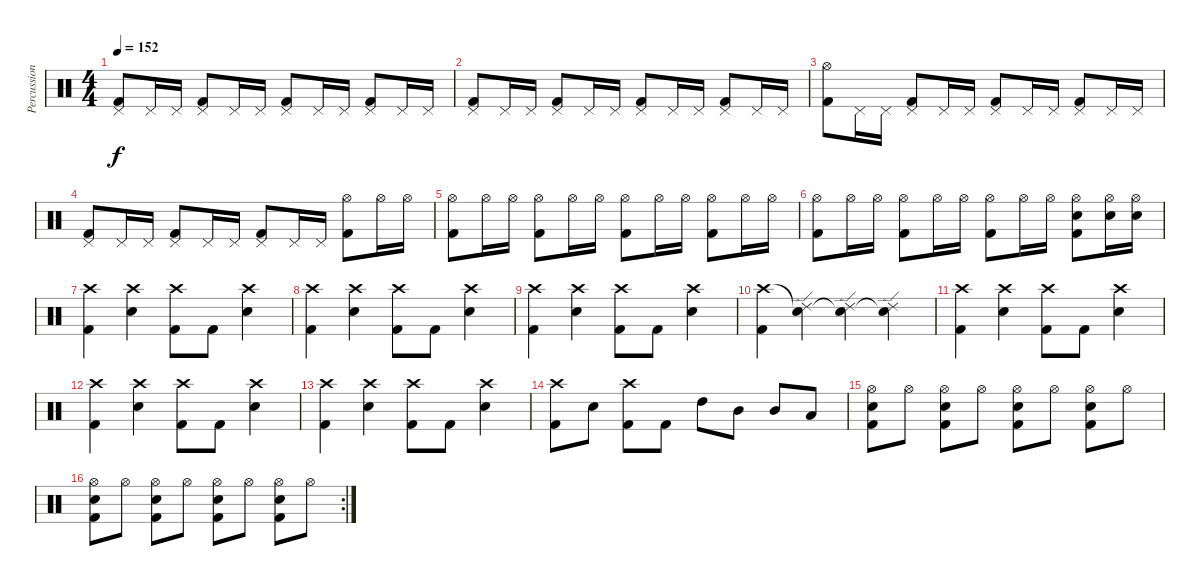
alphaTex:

\track ("Percussion" "Percussion") {instrument percussion}
\staff {score}
\articulation defaults
\ts (4 4)
\tempo 152
\clef neutral
\ks c
("Pedal Hi-Hat (hit)" "Kick (hit) 2").8{dy f} "Pedal Hi-Hat (hit)".16 "Pedal Hi-Hat (hit)".16 ("Pedal Hi-Hat (hit)" "Kick (hit) 2").8 "Pedal Hi-Hat (hit)".16 "Pedal Hi-Hat (hit)".16 ("Pedal Hi-Hat (hit)" "Kick (hit) 2").8 "Pedal Hi-Hat (hit)".16 "Pedal Hi-Hat (hit)".16 ("Pedal Hi-Hat (hit)" "Kick (hit) 2").8 "Pedal Hi-Hat (hit)".16 "Pedal Hi-Hat (hit)".16 |
("Pedal Hi-Hat (hit)" "Kick (hit) 2").8 "Pedal Hi-Hat (hit)".16 "Pedal Hi-Hat (hit)".16 ("Pedal Hi-Hat (hit)" "Kick (hit) 2").8 "Pedal Hi-Hat (hit)".16 "Pedal Hi-Hat (hit)".16 ("Pedal Hi-Hat (hit)" "Kick (hit) 2").8 "Pedal Hi-Hat (hit)".16 "Pedal Hi-Hat (hit)".16 ("Pedal Hi-Hat (hit)" "Kick (hit) 2").8 "Pedal Hi-Hat (hit)".16 "Pedal Hi-Hat (hit)".16 |
("Hi-Hat (open)" "Kick (hit) 2").8 "Pedal Hi-Hat (hit)".16 "Pedal Hi-Hat (hit)".16 ("Pedal Hi-Hat (hit)" "Kick (hit) 2").8 "Pedal Hi-Hat (hit)".16 "Pedal Hi-Hat (hit)".16 ("Pedal Hi-Hat (hit)" "Kick (hit) 2").8 "Pedal Hi-Hat (hit)".16 "Pedal Hi-Hat (hit)".16 ("Pedal Hi-Hat (hit)" "Kick (hit) 2").8 "Pedal Hi-Hat (hit)".16 "Pedal Hi-Hat (hit)".16 |
("Pedal Hi-Hat (hit)" "Kick (hit) 2").8 "Pedal Hi-Hat (hit)".16 "Pedal Hi-Hat (hit)".16 ("Pedal Hi-Hat (hit)" "Kick (hit) 2").8 "Pedal Hi-Hat (hit)".16 "Pedal Hi-Hat (hit)".16 ("Pedal Hi-Hat (hit)" "Kick (hit) 2").8 "Pedal Hi-Hat (hit)".16 "Pedal Hi-Hat (hit)".16 ("Hi-Hat (open)" "Kick (hit) 2").8 "Hi-Hat (open)".16 "Hi-Hat (open)".16 |
("Hi-Hat (open)" "Kick (hit) 2").8 "Hi-Hat (open)".16 "Hi-Hat (open)".16 ("Hi-Hat (open)" "Kick (hit) 2").8 "Hi-Hat (open)".16 "Hi-Hat (open)".16 ("Hi-Hat (open)" "Kick (hit) 2").8 "Hi-Hat (open)".16 "Hi-Hat (open)".16 ("Hi-Hat (open)" "Kick (hit) 2").8 "Hi-Hat (open)".16 "Hi-Hat (open)".16 |
("Hi-Hat (open)" "Kick (hit) 2").8 "Hi-Hat (open)".16 "Hi-Hat (open)".16 ("Hi-Hat (open)" "Kick (hit) 2").8 "Hi-Hat (open)".16 "Hi-Hat (open)".16 ("Hi-Hat (open)" "Kick (hit) 2").8 "Hi-Hat (open)".16 "Hi-Hat (open)".16 ("Hi-Hat (open)" "Snare (hit) 2" "Kick (hit) 2").8 ("Hi-Hat (open)" "Snare (hit) 2").16 ("Hi-Hat (open)" "Snare (hit) 2").16 |
("Crash high (hit)" "Kick (hit) 2").4 ("Crash high (hit)" "Snare (hit) 2").4 ("Crash high (hit)" "Kick (hit) 2").8 "Kick (hit) 2".8 ("Crash high (hit)" "Snare (hit) 2").4 |
("Crash high (hit)" "Kick (hit) 2").4 ("Crash high (hit)" "Snare (hit) 2").4 ("Crash high (hit)" "Kick (hit) 2").8 "Kick (hit) 2".8 ("Crash high (hit)" "Snare (hit) 2").4 |
("Crash high (hit)" "Kick (hit) 2").4 ("Crash high (hit)" "Snare (hit) 2").4 ("Crash high (hit)" "Kick (hit) 2").8 "Kick (hit) 2".8 ("Crash high (hit)" "Snare (hit) 2").4 |
("Crash high (hit)" "Kick (hit) 2").4 ("Snare (hit)"{t} "Ride (edge) 2").4 ("Snare (hit)"{t} "Ride (edge) 2").4 ("Snare (hit)"{t} "Ride (edge) 2").4 |
("Crash high (hit)" "Kick (hit) 2").4 ("Crash high (hit)" "Snare (hit) 2").4 ("Crash high (hit)" "Kick (hit) 2").8 "Kick (hit) 2".8 ("Crash high (hit)" "Snare (hit) 2").4 |
("Crash high (hit)" "Kick (hit) 2").4 ("Crash high (hit)" "Snare (hit) 2").4 ("Crash high (hit)" "Kick (hit) 2").8 "Kick (hit) 2".8 ("Crash high (hit)" "Snare (hit) 2").4 |
("Crash high (hit)" "Kick (hit) 2").4 ("Crash high (hit)" "Snare (hit) 2").4 ("Crash high (hit)" "Kick (hit) 2").8 "Kick (hit) 2".8 ("Crash high (hit)" "Snare (hit) 2").4 |
("Crash high (hit)" "Kick (hit) 2").8 "Snare (hit) 2".8 ("Crash high (hit)" "Kick (hit) 2").8 "Kick (hit) 2".8 "High Tom (hit)".8 "Mid Tom (hit)".8 "Mid Tom (hit)".8 "Low Tom (hit)".8 |
("Hi-Hat (open)" "Snare (hit) 2" "Kick (hit) 2").8 "Hi-Hat (open)".8 ("Hi-Hat (open)" "Snare (hit) 2" "Kick (hit) 2").8 "Hi-Hat (open)".8 ("Hi-Hat (open)" "Snare (hit) 2" "Kick (hit) 2").8 "Hi-Hat (open)".8 ("Hi-Hat (open)" "Snare (hit) 2" "Kick (hit) 2").8 "Hi-Hat (open)".8 |
\rc 2
("Hi-Hat (open)" "Snare (hit) 2" "Kick (hit) 2").8 "Hi-Hat (open)".8 ("Hi-Hat (open)" "Snare (hit) 2" "Kick (hit) 2").8 "Hi-Hat (open)".8 ("Hi-Hat (open)" "Snare (hit) 2" "Kick (hit) 2").8 "Hi-Hat (open)".8 ("Hi-Hat (open)" "Snare (hit) 2" "Kick (hit) 2").8 "Hi-Hat (open)".8
